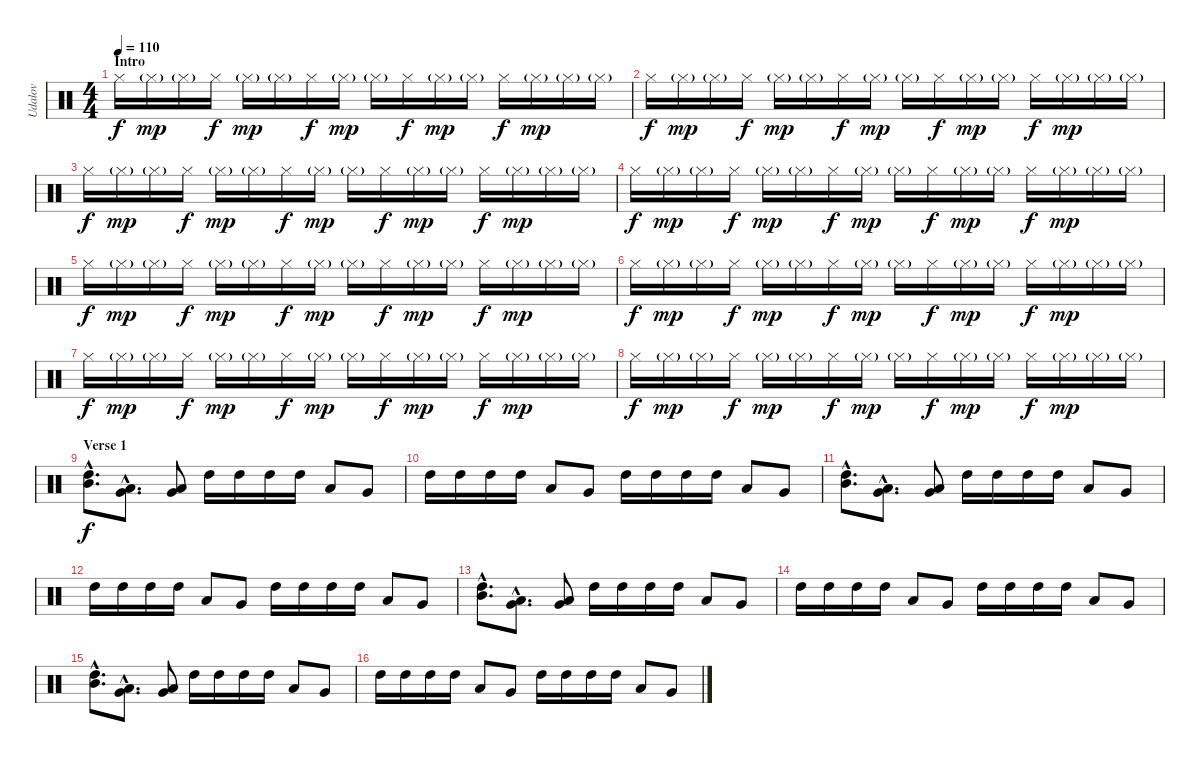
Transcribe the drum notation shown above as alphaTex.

\track ("Udalov" "Udalov") {instrument percussion}
\staff {score}
\articulation defaults
\ts (4 4)
\section ("" "Intro")
\tempo 110
\tempo 87
\tempo 110
\clef neutral
\ks c "Hi-Hat (closed)".16{dy f} "Hi-Hat (closed)"{g}.16{dy mp} "Hi-Hat (closed)"{g}.16 "Hi-Hat (closed)".16{dy f} "Hi-Hat (closed)"{g}.16{dy mp} "Hi-Hat (closed)"{g}.16 "Hi-Hat (closed)".16{dy f} "Hi-Hat (closed)"{g}.16{dy mp} "Hi-Hat (closed)"{g}.16 "Hi-Hat (closed)".16{dy f} "Hi-Hat (closed)"{g}.16{dy mp} "Hi-Hat (closed)"{g}.16 "Hi-Hat (closed)".16{dy f} "Hi-Hat (closed)"{g}.16{dy mp} "Hi-Hat (closed)"{g}.16 "Hi-Hat (closed)"{g}.16
|
"Hi-Hat (closed)".16{dy f} "Hi-Hat (closed)"{g}.16{dy mp} "Hi-Hat (closed)"{g}.16 "Hi-Hat (closed)".16{dy f} "Hi-Hat (closed)"{g}.16{dy mp} "Hi-Hat (closed)"{g}.16 "Hi-Hat (closed)".16{dy f} "Hi-Hat (closed)"{g}.16{dy mp} "Hi-Hat (closed)"{g}.16 "Hi-Hat (closed)".16{dy f} "Hi-Hat (closed)"{g}.16{dy mp} "Hi-Hat (closed)"{g}.16 "Hi-Hat (closed)".16{dy f} "Hi-Hat (closed)"{g}.16{dy mp} "Hi-Hat (closed)"{g}.16 "Hi-Hat (closed)"{g}.16 |
"Hi-Hat (closed)".16{dy f} "Hi-Hat (closed)"{g}.16{dy mp} "Hi-Hat (closed)"{g}.16 "Hi-Hat (closed)".16{dy f} "Hi-Hat (closed)"{g}.16{dy mp} "Hi-Hat (closed)"{g}.16 "Hi-Hat (closed)".16{dy f} "Hi-Hat (closed)"{g}.16{dy mp} "Hi-Hat (closed)"{g}.16 "Hi-Hat (closed)".16{dy f} "Hi-Hat (closed)"{g}.16{dy mp} "Hi-Hat (closed)"{g}.16 "Hi-Hat (closed)".16{dy f} "Hi-Hat (closed)"{g}.16{dy mp} "Hi-Hat (closed)"{g}.16 "Hi-Hat (closed)"{g}.16 |
"Hi-Hat (closed)".16{dy f} "Hi-Hat (closed)"{g}.16{dy mp} "Hi-Hat (closed)"{g}.16 "Hi-Hat (closed)".16{dy f} "Hi-Hat (closed)"{g}.16{dy mp} "Hi-Hat (closed)"{g}.16 "Hi-Hat (closed)".16{dy f} "Hi-Hat (closed)"{g}.16{dy mp} "Hi-Hat (closed)"{g}.16 "Hi-Hat (closed)".16{dy f} "Hi-Hat (closed)"{g}.16{dy mp} "Hi-Hat (closed)"{g}.16 "Hi-Hat (closed)".16{dy f} "Hi-Hat (closed)"{g}.16{dy mp} "Hi-Hat (closed)"{g}.16 "Hi-Hat (closed)"{g}.16 |
"Hi-Hat (closed)".16{dy f} "Hi-Hat (closed)"{g}.16{dy mp} "Hi-Hat (closed)"{g}.16 "Hi-Hat (closed)".16{dy f} "Hi-Hat (closed)"{g}.16{dy mp} "Hi-Hat (closed)"{g}.16 "Hi-Hat (closed)".16{dy f} "Hi-Hat (closed)"{g}.16{dy mp} "Hi-Hat (closed)"{g}.16 "Hi-Hat (closed)".16{dy f} "Hi-Hat (closed)"{g}.16{dy mp} "Hi-Hat (closed)"{g}.16 "Hi-Hat (closed)".16{dy f} "Hi-Hat (closed)"{g}.16{dy mp} "Hi-Hat (closed)"{g}.16 "Hi-Hat (closed)"{g}.16 |
"Hi-Hat (closed)".16{dy f} "Hi-Hat (closed)"{g}.16{dy mp} "Hi-Hat (closed)"{g}.16 "Hi-Hat (closed)".16{dy f} "Hi-Hat (closed)"{g}.16{dy mp} "Hi-Hat (closed)"{g}.16 "Hi-Hat (closed)".16{dy f} "Hi-Hat (closed)"{g}.16{dy mp} "Hi-Hat (closed)"{g}.16 "Hi-Hat (closed)".16{dy f} "Hi-Hat (closed)"{g}.16{dy mp} "Hi-Hat (closed)"{g}.16 "Hi-Hat (closed)".16{dy f} "Hi-Hat (closed)"{g}.16{dy mp} "Hi-Hat (closed)"{g}.16 "Hi-Hat (closed)"{g}.16 |
"Hi-Hat (closed)".16{dy f} "Hi-Hat (closed)"{g}.16{dy mp} "Hi-Hat (closed)"{g}.16 "Hi-Hat (closed)".16{dy f} "Hi-Hat (closed)"{g}.16{dy mp} "Hi-Hat (closed)"{g}.16 "Hi-Hat (closed)".16{dy f} "Hi-Hat (closed)"{g}.16{dy mp} "Hi-Hat (closed)"{g}.16 "Hi-Hat (closed)".16{dy f} "Hi-Hat (closed)"{g}.16{dy mp} "Hi-Hat (closed)"{g}.16 "Hi-Hat (closed)".16{dy f} "Hi-Hat (closed)"{g}.16{dy mp} "Hi-Hat (closed)"{g}.16 "Hi-Hat (closed)"{g}.16 |
"Hi-Hat (closed)".16{dy f} "Hi-Hat (closed)"{g}.16{dy mp} "Hi-Hat (closed)"{g}.16 "Hi-Hat (closed)".16{dy f} "Hi-Hat (closed)"{g}.16{dy mp} "Hi-Hat (closed)"{g}.16 "Hi-Hat (closed)".16{dy f} "Hi-Hat (closed)"{g}.16{dy mp} "Hi-Hat (closed)"{g}.16 "Hi-Hat (closed)".16{dy f} "Hi-Hat (closed)"{g}.16{dy mp} "Hi-Hat (closed)"{g}.16 "Hi-Hat (closed)".16{dy f} "Hi-Hat (closed)"{g}.16{dy mp} "Hi-Hat (closed)"{g}.16 "Hi-Hat (closed)"{g}.16 |
\section ("" "Verse 1")
("High Tom (hit)"{hac} "Mid Tom (hit)"{hac}).8{d dy f} ("Low Tom (hit)"{hac} "Very Low Tom (hit)"{hac}).8{d} ("Very Low Tom (hit)" "Low Floor Tom (hit)").8 "High Tom (hit)".16 "High Tom (hit)".16 "High Tom (hit)".16 "High Tom (hit)".16 "Low Tom (hit)".8 "Very Low Tom (hit)".8 |
"High Tom (hit)".16 "High Tom (hit)".16 "High Tom (hit)".16 "High Tom (hit)".16 "Low Tom (hit)".8 "Very Low Tom (hit)".8 "High Tom (hit)".16 "High Tom (hit)".16 "High Tom (hit)".16 "High Tom (hit)".16 "Low Tom (hit)".8 "Very Low Tom (hit)".8 |
("High Tom (hit)"{hac} "Mid Tom (hit)"{hac}).8{d} ("Low Tom (hit)"{hac} "Very Low Tom (hit)"{hac}).8{d} ("Very Low Tom (hit)" "Low Floor Tom (hit)").8 "High Tom (hit)".16 "High Tom (hit)".16 "High Tom (hit)".16 "High Tom (hit)".16 "Low Tom (hit)".8 "Very Low Tom (hit)".8 |
"High Tom (hit)".16 "High Tom (hit)".16 "High Tom (hit)".16 "High Tom (hit)".16 "Low Tom (hit)".8 "Very Low Tom (hit)".8 "High Tom (hit)".16 "High Tom (hit)".16 "High Tom (hit)".16 "High Tom (hit)".16 "Low Tom (hit)".8 "Very Low Tom (hit)".8 |
("High Tom (hit)"{hac} "Mid Tom (hit)"{hac}).8{d} ("Low Tom (hit)"{hac} "Very Low Tom (hit)"{hac}).8{d} ("Very Low Tom (hit)" "Low Floor Tom (hit)").8 "High Tom (hit)".16 "High Tom (hit)".16 "High Tom (hit)".16 "High Tom (hit)".16 "Low Tom (hit)".8 "Very Low Tom (hit)".8 |
"High Tom (hit)".16 "High Tom (hit)".16 "High Tom (hit)".16 "High Tom (hit)".16 "Low Tom (hit)".8 "Very Low Tom (hit)".8 "High Tom (hit)".16 "High Tom (hit)".16 "High Tom (hit)".16 "High Tom (hit)".16 "Low Tom (hit)".8 "Very Low Tom (hit)".8 |
("High Tom (hit)"{hac} "Mid Tom (hit)"{hac}).8{d} ("Low Tom (hit)"{hac} "Very Low Tom (hit)"{hac}).8{d} ("Very Low Tom (hit)" "Low Floor Tom (hit)").8 "High Tom (hit)".16 "High Tom (hit)".16 "High Tom (hit)".16 "High Tom (hit)".16 "Low Tom (hit)".8 "Very Low Tom (hit)".8 |
"High Tom (hit)".16 "High Tom (hit)".16 "High Tom (hit)".16 "High Tom (hit)".16 "Low Tom (hit)".8 "Very Low Tom (hit)".8 "High Tom (hit)".16 "High Tom (hit)".16 "High Tom (hit)".16 "High Tom (hit)".16 "Low Tom (hit)".8 "Very Low Tom (hit)".8
